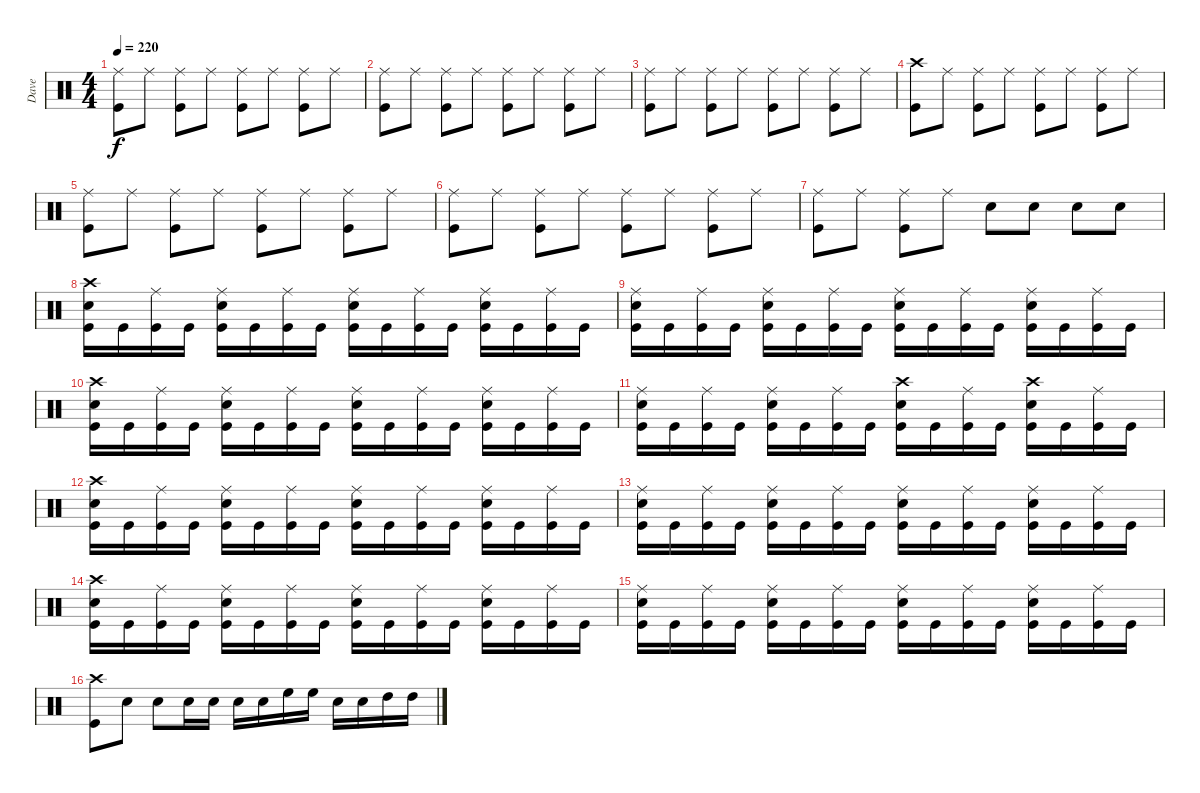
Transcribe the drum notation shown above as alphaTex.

\track ("Dave" "Dave") {instrument percussion}
\staff {score}
\articulation defaults
\ts (4 4)
\tempo 220
\clef neutral
\ks c
("Ride (middle)" "Kick (hit)").8{dy f} "Ride (middle)".8 ("Ride (middle)" "Kick (hit)").8 "Ride (middle)".8 ("Ride (middle)" "Kick (hit)").8 "Ride (middle)".8 ("Ride (middle)" "Kick (hit)").8 "Ride (middle)".8 |
("Ride (middle)" "Kick (hit)").8 "Ride (middle)".8 ("Ride (middle)" "Kick (hit)").8 "Ride (middle)".8 ("Ride (middle)" "Kick (hit)").8 "Ride (middle)".8 ("Ride (middle)" "Kick (hit)").8 "Ride (middle)".8 |
("Ride (middle)" "Kick (hit)").8 "Ride (middle)".8 ("Ride (middle)" "Kick (hit)").8 "Ride (middle)".8 ("Ride (middle)" "Kick (hit)").8 "Ride (middle)".8 ("Ride (middle)" "Kick (hit)").8 "Ride (middle)".8 |
("Crash high (hit)" "Kick (hit)").8 "Ride (middle)".8 ("Ride (middle)" "Kick (hit)").8 "Ride (middle)".8 ("Ride (middle)" "Kick (hit)").8 "Ride (middle)".8 ("Ride (middle)" "Kick (hit)").8 "Ride (middle)".8 |
("Ride (middle)" "Kick (hit)").8 "Ride (middle)".8 ("Ride (middle)" "Kick (hit)").8 "Ride (middle)".8 ("Ride (middle)" "Kick (hit)").8 "Ride (middle)".8 ("Ride (middle)" "Kick (hit)").8 "Ride (middle)".8 |
("Ride (middle)" "Kick (hit)").8 "Ride (middle)".8 ("Ride (middle)" "Kick (hit)").8 "Ride (middle)".8 ("Ride (middle)" "Kick (hit)").8 "Ride (middle)".8 ("Ride (middle)" "Kick (hit)").8 "Ride (middle)".8 |
("Ride (middle)" "Kick (hit)").8 "Ride (middle)".8 ("Ride (middle)" "Kick (hit)").8 "Ride (middle)".8 "Snare (hit) 2".8 "Snare (hit) 2".8 "Snare (hit) 2".8 "Snare (hit) 2".8 |
("Crash high (hit)" "Snare (hit) 2" "Kick (hit)").16 "Kick (hit)".16 ("Ride (middle)" "Kick (hit)").16 "Kick (hit)".16 ("Ride (middle)" "Snare (hit) 2" "Kick (hit)").16 "Kick (hit)".16 ("Ride (middle)" "Kick (hit)").16 "Kick (hit)".16 ("Ride (middle)" "Snare (hit) 2" "Kick (hit)").16 "Kick (hit)".16 ("Ride (middle)" "Kick (hit)").16 "Kick (hit)".16 ("Ride (middle)" "Snare (hit) 2" "Kick (hit)").16 "Kick (hit)".16 ("Ride (middle)" "Kick (hit)").16 "Kick (hit)".16 |
("Ride (middle)" "Snare (hit) 2" "Kick (hit)").16 "Kick (hit)".16 ("Ride (middle)" "Kick (hit)").16 "Kick (hit)".16 ("Ride (middle)" "Snare (hit) 2" "Kick (hit)").16 "Kick (hit)".16 ("Ride (middle)" "Kick (hit)").16 "Kick (hit)".16 ("Ride (middle)" "Snare (hit) 2" "Kick (hit)").16 "Kick (hit)".16 ("Ride (middle)" "Kick (hit)").16 "Kick (hit)".16 ("Ride (middle)" "Snare (hit) 2" "Kick (hit)").16 "Kick (hit)".16 ("Ride (middle)" "Kick (hit)").16 "Kick (hit)".16 |
("Crash high (hit)" "Snare (hit) 2" "Kick (hit)").16 "Kick (hit)".16 ("Ride (middle)" "Kick (hit)").16 "Kick (hit)".16 ("Ride (middle)" "Snare (hit) 2" "Kick (hit)").16 "Kick (hit)".16 ("Ride (middle)" "Kick (hit)").16 "Kick (hit)".16 ("Ride (middle)" "Snare (hit) 2" "Kick (hit)").16 "Kick (hit)".16 ("Ride (middle)" "Kick (hit)").16 "Kick (hit)".16 ("Ride (middle)" "Snare (hit) 2" "Kick (hit)").16 "Kick (hit)".16 ("Ride (middle)" "Kick (hit)").16 "Kick (hit)".16 |
("Ride (middle)" "Snare (hit) 2" "Kick (hit)").16 "Kick (hit)".16 ("Ride (middle)" "Kick (hit)").16 "Kick (hit)".16 ("Ride (middle)" "Snare (hit) 2" "Kick (hit)").16 "Kick (hit)".16 ("Ride (middle)" "Kick (hit)").16 "Kick (hit)".16 ("Crash high (hit)" "Snare (hit) 2" "Kick (hit)").16 "Kick (hit)".16 ("Ride (middle)" "Kick (hit)").16 "Kick (hit)".16 ("Crash high (hit)" "Snare (hit) 2" "Kick (hit)").16 "Kick (hit)".16 ("Ride (middle)" "Kick (hit)").16 "Kick (hit)".16 |
("Crash high (hit)" "Snare (hit) 2" "Kick (hit)").16 "Kick (hit)".16 ("Ride (middle)" "Kick (hit)").16 "Kick (hit)".16 ("Ride (middle)" "Snare (hit) 2" "Kick (hit)").16 "Kick (hit)".16 ("Ride (middle)" "Kick (hit)").16 "Kick (hit)".16 ("Ride (middle)" "Snare (hit) 2" "Kick (hit)").16 "Kick (hit)".16 ("Ride (middle)" "Kick (hit)").16 "Kick (hit)".16 ("Ride (middle)" "Snare (hit) 2" "Kick (hit)").16 "Kick (hit)".16 ("Ride (middle)" "Kick (hit)").16 "Kick (hit)".16 |
("Ride (middle)" "Snare (hit) 2" "Kick (hit)").16 "Kick (hit)".16 ("Ride (middle)" "Kick (hit)").16 "Kick (hit)".16 ("Ride (middle)" "Snare (hit) 2" "Kick (hit)").16 "Kick (hit)".16 ("Ride (middle)" "Kick (hit)").16 "Kick (hit)".16 ("Ride (middle)" "Snare (hit) 2" "Kick (hit)").16 "Kick (hit)".16 ("Ride (middle)" "Kick (hit)").16 "Kick (hit)".16 ("Ride (middle)" "Snare (hit) 2" "Kick (hit)").16 "Kick (hit)".16 ("Ride (middle)" "Kick (hit)").16 "Kick (hit)".16 |
("Crash high (hit)" "Snare (hit) 2" "Kick (hit)").16 "Kick (hit)".16 ("Ride (middle)" "Kick (hit)").16 "Kick (hit)".16 ("Ride (middle)" "Snare (hit) 2" "Kick (hit)").16 "Kick (hit)".16 ("Ride (middle)" "Kick (hit)").16 "Kick (hit)".16 ("Ride (middle)" "Snare (hit) 2" "Kick (hit)").16 "Kick (hit)".16 ("Ride (middle)" "Kick (hit)").16 "Kick (hit)".16 ("Ride (middle)" "Snare (hit) 2" "Kick (hit)").16 "Kick (hit)".16 ("Ride (middle)" "Kick (hit)").16 "Kick (hit)".16 |
("Ride (middle)" "Snare (hit) 2" "Kick (hit)").16 "Kick (hit)".16 ("Ride (middle)" "Kick (hit)").16 "Kick (hit)".16 ("Ride (middle)" "Snare (hit) 2" "Kick (hit)").16 "Kick (hit)".16 ("Ride (middle)" "Kick (hit)").16 "Kick (hit)".16 ("Ride (middle)" "Snare (hit) 2" "Kick (hit)").16 "Kick (hit)".16 ("Ride (middle)" "Kick (hit)").16 "Kick (hit)".16 ("Ride (middle)" "Snare (hit) 2" "Kick (hit)").16 "Kick (hit)".16 ("Ride (middle)" "Kick (hit)").16 "Kick (hit)".16 |
("Crash high (hit)" "Kick (hit)").8 "Snare (hit) 2".8 "Snare (hit) 2".8 "Snare (hit) 2".16 "Snare (hit) 2".16 "Snare (hit) 2".16 "Snare (hit) 2".16 "High Floor Tom (hit)".16 "High Floor Tom (hit)".16 "Snare (hit) 2".16 "Snare (hit) 2".16 "High Tom (hit)".16 "High Tom (hit)".16
